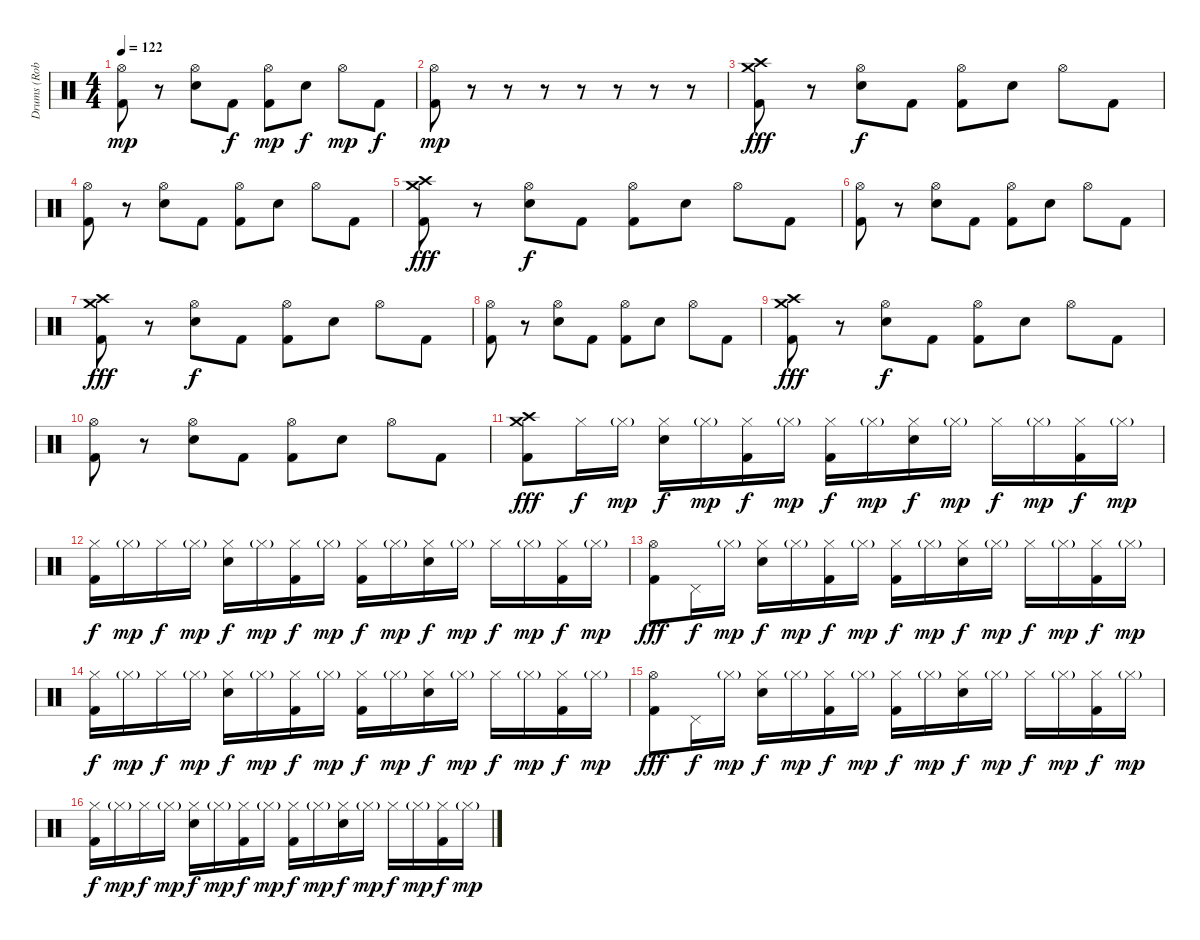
\track ("Drums (Rob Boudron)" "Drums (Rob") {instrument percussion}
\staff {score}
\articulation defaults
\ts (4 4)
\tempo 122
\clef neutral
\ks c
("Hi-Hat (open)" "Kick (hit) 2").8{dy mp} r.8 ("Hi-Hat (open)" "Electric Snare (hit)").8 "Kick (hit) 2".8{dy f} ("Hi-Hat (open)" "Kick (hit) 2").8{dy mp} "Electric Snare (hit)".8{dy f} "Hi-Hat (open)".8{dy mp} "Kick (hit) 2".8{dy f} |
("Hi-Hat (open)" "Kick (hit) 2").8{dy mp} r.8 r.8 r.8 r.8 r.8 r.8 r.8 |
("Crash medium (hit)" "Crash high (hit)" "Kick (hit) 2").8{dy fff} r.8 ("Hi-Hat (open)" "Electric Snare (hit)").8{dy f} "Kick (hit) 2".8 ("Hi-Hat (open)" "Kick (hit) 2").8 "Electric Snare (hit)".8 "Hi-Hat (open)".8 "Kick (hit) 2".8 |
("Hi-Hat (open)" "Kick (hit) 2").8 r.8 ("Hi-Hat (open)" "Electric Snare (hit)").8 "Kick (hit) 2".8 ("Hi-Hat (open)" "Kick (hit) 2").8 "Electric Snare (hit)".8 "Hi-Hat (open)".8 "Kick (hit) 2".8 |
("Crash medium (hit)" "Crash high (hit)" "Kick (hit) 2").8{dy fff} r.8 ("Hi-Hat (open)" "Electric Snare (hit)").8{dy f} "Kick (hit) 2".8 ("Hi-Hat (open)" "Kick (hit) 2").8 "Electric Snare (hit)".8 "Hi-Hat (open)".8 "Kick (hit) 2".8 |
("Hi-Hat (open)" "Kick (hit) 2").8 r.8 ("Hi-Hat (open)" "Electric Snare (hit)").8 "Kick (hit) 2".8 ("Hi-Hat (open)" "Kick (hit) 2").8 "Electric Snare (hit)".8 "Hi-Hat (open)".8 "Kick (hit) 2".8 |
("Crash medium (hit)" "Crash high (hit)" "Kick (hit) 2").8{dy fff} r.8 ("Hi-Hat (open)" "Electric Snare (hit)").8{dy f} "Kick (hit) 2".8 ("Hi-Hat (open)" "Kick (hit) 2").8 "Electric Snare (hit)".8 "Hi-Hat (open)".8 "Kick (hit) 2".8 |
("Hi-Hat (open)" "Kick (hit) 2").8 r.8 ("Hi-Hat (open)" "Electric Snare (hit)").8 "Kick (hit) 2".8 ("Hi-Hat (open)" "Kick (hit) 2").8 "Electric Snare (hit)".8 "Hi-Hat (open)".8 "Kick (hit) 2".8 |
("Crash medium (hit)" "Crash high (hit)" "Kick (hit) 2").8{dy fff} r.8 ("Hi-Hat (open)" "Electric Snare (hit)").8{dy f} "Kick (hit) 2".8 ("Hi-Hat (open)" "Kick (hit) 2").8 "Electric Snare (hit)".8 "Hi-Hat (open)".8 "Kick (hit) 2".8 |
("Hi-Hat (open)" "Kick (hit) 2").8 r.8 ("Hi-Hat (open)" "Electric Snare (hit)").8 "Kick (hit) 2".8 ("Hi-Hat (open)" "Kick (hit) 2").8 "Electric Snare (hit)".8 "Hi-Hat (open)".8 "Kick (hit) 2".8 |
("Crash medium (hit)" "Crash high (hit)" "Kick (hit) 2").8{dy fff} "Hi-Hat (closed)".16{dy f} "Hi-Hat (closed)"{g}.16{dy mp} ("Hi-Hat (closed)" "Electric Snare (hit)").16{dy f} "Hi-Hat (closed)"{g}.16{dy mp} ("Hi-Hat (closed)" "Kick (hit) 2").16{dy f} "Hi-Hat (closed)"{g}.16{dy mp} ("Hi-Hat (closed)" "Kick (hit) 2").16{dy f} "Hi-Hat (closed)"{g}.16{dy mp} ("Hi-Hat (closed)" "Electric Snare (hit)").16{dy f} "Hi-Hat (closed)"{g}.16{dy mp} "Hi-Hat (closed)".16{dy f} "Hi-Hat (closed)"{g}.16{dy mp} ("Hi-Hat (closed)" "Kick (hit) 2").16{dy f} "Hi-Hat (closed)"{g}.16{dy mp} |
("Hi-Hat (closed)" "Kick (hit) 2").16{dy f} "Hi-Hat (closed)"{g}.16{dy mp} "Hi-Hat (closed)".16{dy f} "Hi-Hat (closed)"{g}.16{dy mp} ("Hi-Hat (closed)" "Electric Snare (hit)").16{dy f} "Hi-Hat (closed)"{g}.16{dy mp} ("Hi-Hat (closed)" "Kick (hit) 2").16{dy f} "Hi-Hat (closed)"{g}.16{dy mp} ("Hi-Hat (closed)" "Kick (hit) 2").16{dy f} "Hi-Hat (closed)"{g}.16{dy mp} ("Hi-Hat (closed)" "Electric Snare (hit)").16{dy f} "Hi-Hat (closed)"{g}.16{dy mp} "Hi-Hat (closed)".16{dy f} "Hi-Hat (closed)"{g}.16{dy mp} ("Hi-Hat (closed)" "Kick (hit) 2").16{dy f} "Hi-Hat (closed)"{g}.16{dy mp} |
("Hi-Hat (open)" "Kick (hit) 2").8{dy fff} "Pedal Hi-Hat (hit)".16{dy f} "Hi-Hat (closed)"{g}.16{dy mp} ("Hi-Hat (closed)" "Electric Snare (hit)").16{dy f} "Hi-Hat (closed)"{g}.16{dy mp} ("Hi-Hat (closed)" "Kick (hit) 2").16{dy f} "Hi-Hat (closed)"{g}.16{dy mp} ("Hi-Hat (closed)" "Kick (hit) 2").16{dy f} "Hi-Hat (closed)"{g}.16{dy mp} ("Hi-Hat (closed)" "Electric Snare (hit)").16{dy f} "Hi-Hat (closed)"{g}.16{dy mp} "Hi-Hat (closed)".16{dy f} "Hi-Hat (closed)"{g}.16{dy mp} ("Hi-Hat (closed)" "Kick (hit) 2").16{dy f} "Hi-Hat (closed)"{g}.16{dy mp} |
("Hi-Hat (closed)" "Kick (hit) 2").16{dy f} "Hi-Hat (closed)"{g}.16{dy mp} "Hi-Hat (closed)".16{dy f} "Hi-Hat (closed)"{g}.16{dy mp} ("Hi-Hat (closed)" "Electric Snare (hit)").16{dy f} "Hi-Hat (closed)"{g}.16{dy mp} ("Hi-Hat (closed)" "Kick (hit) 2").16{dy f} "Hi-Hat (closed)"{g}.16{dy mp} ("Hi-Hat (closed)" "Kick (hit) 2").16{dy f} "Hi-Hat (closed)"{g}.16{dy mp} ("Hi-Hat (closed)" "Electric Snare (hit)").16{dy f} "Hi-Hat (closed)"{g}.16{dy mp} "Hi-Hat (closed)".16{dy f} "Hi-Hat (closed)"{g}.16{dy mp} ("Hi-Hat (closed)" "Kick (hit) 2").16{dy f} "Hi-Hat (closed)"{g}.16{dy mp} |
("Hi-Hat (open)" "Kick (hit) 2").8{dy fff} "Pedal Hi-Hat (hit)".16{dy f} "Hi-Hat (closed)"{g}.16{dy mp} ("Hi-Hat (closed)" "Electric Snare (hit)").16{dy f} "Hi-Hat (closed)"{g}.16{dy mp} ("Hi-Hat (closed)" "Kick (hit) 2").16{dy f} "Hi-Hat (closed)"{g}.16{dy mp} ("Hi-Hat (closed)" "Kick (hit) 2").16{dy f} "Hi-Hat (closed)"{g}.16{dy mp} ("Hi-Hat (closed)" "Electric Snare (hit)").16{dy f} "Hi-Hat (closed)"{g}.16{dy mp} "Hi-Hat (closed)".16{dy f} "Hi-Hat (closed)"{g}.16{dy mp} ("Hi-Hat (closed)" "Kick (hit) 2").16{dy f} "Hi-Hat (closed)"{g}.16{dy mp} |
("Hi-Hat (closed)" "Kick (hit) 2").16{dy f} "Hi-Hat (closed)"{g}.16{dy mp} "Hi-Hat (closed)".16{dy f} "Hi-Hat (closed)"{g}.16{dy mp} ("Hi-Hat (closed)" "Electric Snare (hit)").16{dy f} "Hi-Hat (closed)"{g}.16{dy mp} ("Hi-Hat (closed)" "Kick (hit) 2").16{dy f} "Hi-Hat (closed)"{g}.16{dy mp} ("Hi-Hat (closed)" "Kick (hit) 2").16{dy f} "Hi-Hat (closed)"{g}.16{dy mp} ("Hi-Hat (closed)" "Electric Snare (hit)").16{dy f} "Hi-Hat (closed)"{g}.16{dy mp} "Hi-Hat (closed)".16{dy f} "Hi-Hat (closed)"{g}.16{dy mp} ("Hi-Hat (closed)" "Kick (hit) 2").16{dy f} "Hi-Hat (closed)"{g}.16{dy mp}
